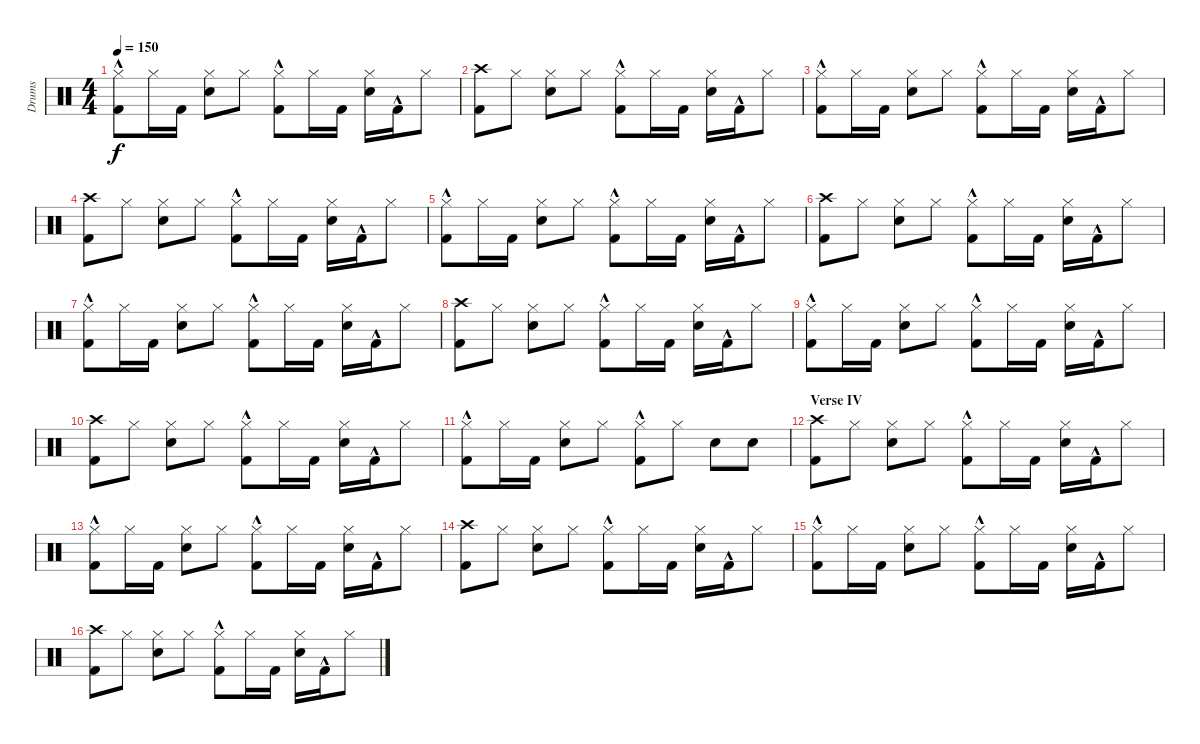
\track ("Drums" "Drums") {instrument percussion}
\staff {score}
\articulation defaults
\ts (4 4)
\tempo 150
\clef neutral
\ks c
("Hi-Hat (closed)" "Kick (hit) 2"{hac}).8{dy f} "Hi-Hat (closed)".16 "Kick (hit) 2".16 ("Hi-Hat (closed)" "Electric Snare (hit)").8 "Hi-Hat (closed)".8 ("Hi-Hat (closed)" "Kick (hit) 2"{hac}).8 "Hi-Hat (closed)".16 "Kick (hit) 2".16 ("Hi-Hat (closed)" "Electric Snare (hit)").16 "Kick (hit) 2"{hac}.16 "Hi-Hat (closed)".8 |
("Crash high (hit)" "Kick (hit) 2").8 "Hi-Hat (closed)".8 ("Hi-Hat (closed)" "Electric Snare (hit)").8 "Hi-Hat (closed)".8 ("Hi-Hat (closed)" "Kick (hit) 2"{hac}).8 "Hi-Hat (closed)".16 "Kick (hit) 2".16 ("Hi-Hat (closed)" "Electric Snare (hit)").16 "Kick (hit) 2"{hac}.16 "Hi-Hat (closed)".8 |
("Hi-Hat (closed)" "Kick (hit) 2"{hac}).8 "Hi-Hat (closed)".16 "Kick (hit) 2".16 ("Hi-Hat (closed)" "Electric Snare (hit)").8 "Hi-Hat (closed)".8 ("Hi-Hat (closed)" "Kick (hit) 2"{hac}).8 "Hi-Hat (closed)".16 "Kick (hit) 2".16 ("Hi-Hat (closed)" "Electric Snare (hit)").16 "Kick (hit) 2"{hac}.16 "Hi-Hat (closed)".8 |
("Crash high (hit)" "Kick (hit) 2").8 "Hi-Hat (closed)".8 ("Hi-Hat (closed)" "Electric Snare (hit)").8 "Hi-Hat (closed)".8 ("Hi-Hat (closed)" "Kick (hit) 2"{hac}).8 "Hi-Hat (closed)".16 "Kick (hit) 2".16 ("Hi-Hat (closed)" "Electric Snare (hit)").16 "Kick (hit) 2"{hac}.16 "Hi-Hat (closed)".8 |
("Hi-Hat (closed)" "Kick (hit) 2"{hac}).8 "Hi-Hat (closed)".16 "Kick (hit) 2".16 ("Hi-Hat (closed)" "Electric Snare (hit)").8 "Hi-Hat (closed)".8 ("Hi-Hat (closed)" "Kick (hit) 2"{hac}).8 "Hi-Hat (closed)".16 "Kick (hit) 2".16 ("Hi-Hat (closed)" "Electric Snare (hit)").16 "Kick (hit) 2"{hac}.16 "Hi-Hat (closed)".8 |
("Crash high (hit)" "Kick (hit) 2").8 "Hi-Hat (closed)".8 ("Hi-Hat (closed)" "Electric Snare (hit)").8 "Hi-Hat (closed)".8 ("Hi-Hat (closed)" "Kick (hit) 2"{hac}).8 "Hi-Hat (closed)".16 "Kick (hit) 2".16 ("Hi-Hat (closed)" "Electric Snare (hit)").16 "Kick (hit) 2"{hac}.16 "Hi-Hat (closed)".8 |
("Hi-Hat (closed)" "Kick (hit) 2"{hac}).8 "Hi-Hat (closed)".16 "Kick (hit) 2".16 ("Hi-Hat (closed)" "Electric Snare (hit)").8 "Hi-Hat (closed)".8 ("Hi-Hat (closed)" "Kick (hit) 2"{hac}).8 "Hi-Hat (closed)".16 "Kick (hit) 2".16 ("Hi-Hat (closed)" "Electric Snare (hit)").16 "Kick (hit) 2"{hac}.16 "Hi-Hat (closed)".8 |
("Crash high (hit)" "Kick (hit) 2").8 "Hi-Hat (closed)".8 ("Hi-Hat (closed)" "Electric Snare (hit)").8 "Hi-Hat (closed)".8 ("Hi-Hat (closed)" "Kick (hit) 2"{hac}).8 "Hi-Hat (closed)".16 "Kick (hit) 2".16 ("Hi-Hat (closed)" "Electric Snare (hit)").16 "Kick (hit) 2"{hac}.16 "Hi-Hat (closed)".8 |
("Hi-Hat (closed)" "Kick (hit) 2"{hac}).8 "Hi-Hat (closed)".16 "Kick (hit) 2".16 ("Hi-Hat (closed)" "Electric Snare (hit)").8 "Hi-Hat (closed)".8 ("Hi-Hat (closed)" "Kick (hit) 2"{hac}).8 "Hi-Hat (closed)".16 "Kick (hit) 2".16 ("Hi-Hat (closed)" "Electric Snare (hit)").16 "Kick (hit) 2"{hac}.16 "Hi-Hat (closed)".8 |
("Crash high (hit)" "Kick (hit) 2").8 "Hi-Hat (closed)".8 ("Hi-Hat (closed)" "Electric Snare (hit)").8 "Hi-Hat (closed)".8 ("Hi-Hat (closed)" "Kick (hit) 2"{hac}).8 "Hi-Hat (closed)".16 "Kick (hit) 2".16 ("Hi-Hat (closed)" "Electric Snare (hit)").16 "Kick (hit) 2"{hac}.16 "Hi-Hat (closed)".8 |
("Hi-Hat (closed)" "Kick (hit) 2"{hac}).8 "Hi-Hat (closed)".16 "Kick (hit) 2".16 ("Hi-Hat (closed)" "Electric Snare (hit)").8 "Hi-Hat (closed)".8 ("Hi-Hat (closed)" "Kick (hit) 2"{hac}).8 "Hi-Hat (closed)".8 "Electric Snare (hit)".8 "Electric Snare (hit)".8 |
\section ("" "Verse IV")
("Crash high (hit)" "Kick (hit) 2").8 "Hi-Hat (closed)".8 ("Hi-Hat (closed)" "Electric Snare (hit)").8 "Hi-Hat (closed)".8 ("Hi-Hat (closed)" "Kick (hit) 2"{hac}).8 "Hi-Hat (closed)".16 "Kick (hit) 2".16 ("Hi-Hat (closed)" "Electric Snare (hit)").16 "Kick (hit) 2"{hac}.16 "Hi-Hat (closed)".8 |
("Hi-Hat (closed)" "Kick (hit) 2"{hac}).8 "Hi-Hat (closed)".16 "Kick (hit) 2".16 ("Hi-Hat (closed)" "Electric Snare (hit)").8 "Hi-Hat (closed)".8 ("Hi-Hat (closed)" "Kick (hit) 2"{hac}).8 "Hi-Hat (closed)".16 "Kick (hit) 2".16 ("Hi-Hat (closed)" "Electric Snare (hit)").16 "Kick (hit) 2"{hac}.16 "Hi-Hat (closed)".8 |
("Crash high (hit)" "Kick (hit) 2").8 "Hi-Hat (closed)".8 ("Hi-Hat (closed)" "Electric Snare (hit)").8 "Hi-Hat (closed)".8 ("Hi-Hat (closed)" "Kick (hit) 2"{hac}).8 "Hi-Hat (closed)".16 "Kick (hit) 2".16 ("Hi-Hat (closed)" "Electric Snare (hit)").16 "Kick (hit) 2"{hac}.16 "Hi-Hat (closed)".8 |
("Hi-Hat (closed)" "Kick (hit) 2"{hac}).8 "Hi-Hat (closed)".16 "Kick (hit) 2".16 ("Hi-Hat (closed)" "Electric Snare (hit)").8 "Hi-Hat (closed)".8 ("Hi-Hat (closed)" "Kick (hit) 2"{hac}).8 "Hi-Hat (closed)".16 "Kick (hit) 2".16 ("Hi-Hat (closed)" "Electric Snare (hit)").16 "Kick (hit) 2"{hac}.16 "Hi-Hat (closed)".8 |
("Crash high (hit)" "Kick (hit) 2").8 "Hi-Hat (closed)".8 ("Hi-Hat (closed)" "Electric Snare (hit)").8 "Hi-Hat (closed)".8 ("Hi-Hat (closed)" "Kick (hit) 2"{hac}).8 "Hi-Hat (closed)".16 "Kick (hit) 2".16 ("Hi-Hat (closed)" "Electric Snare (hit)").16 "Kick (hit) 2"{hac}.16 "Hi-Hat (closed)".8
